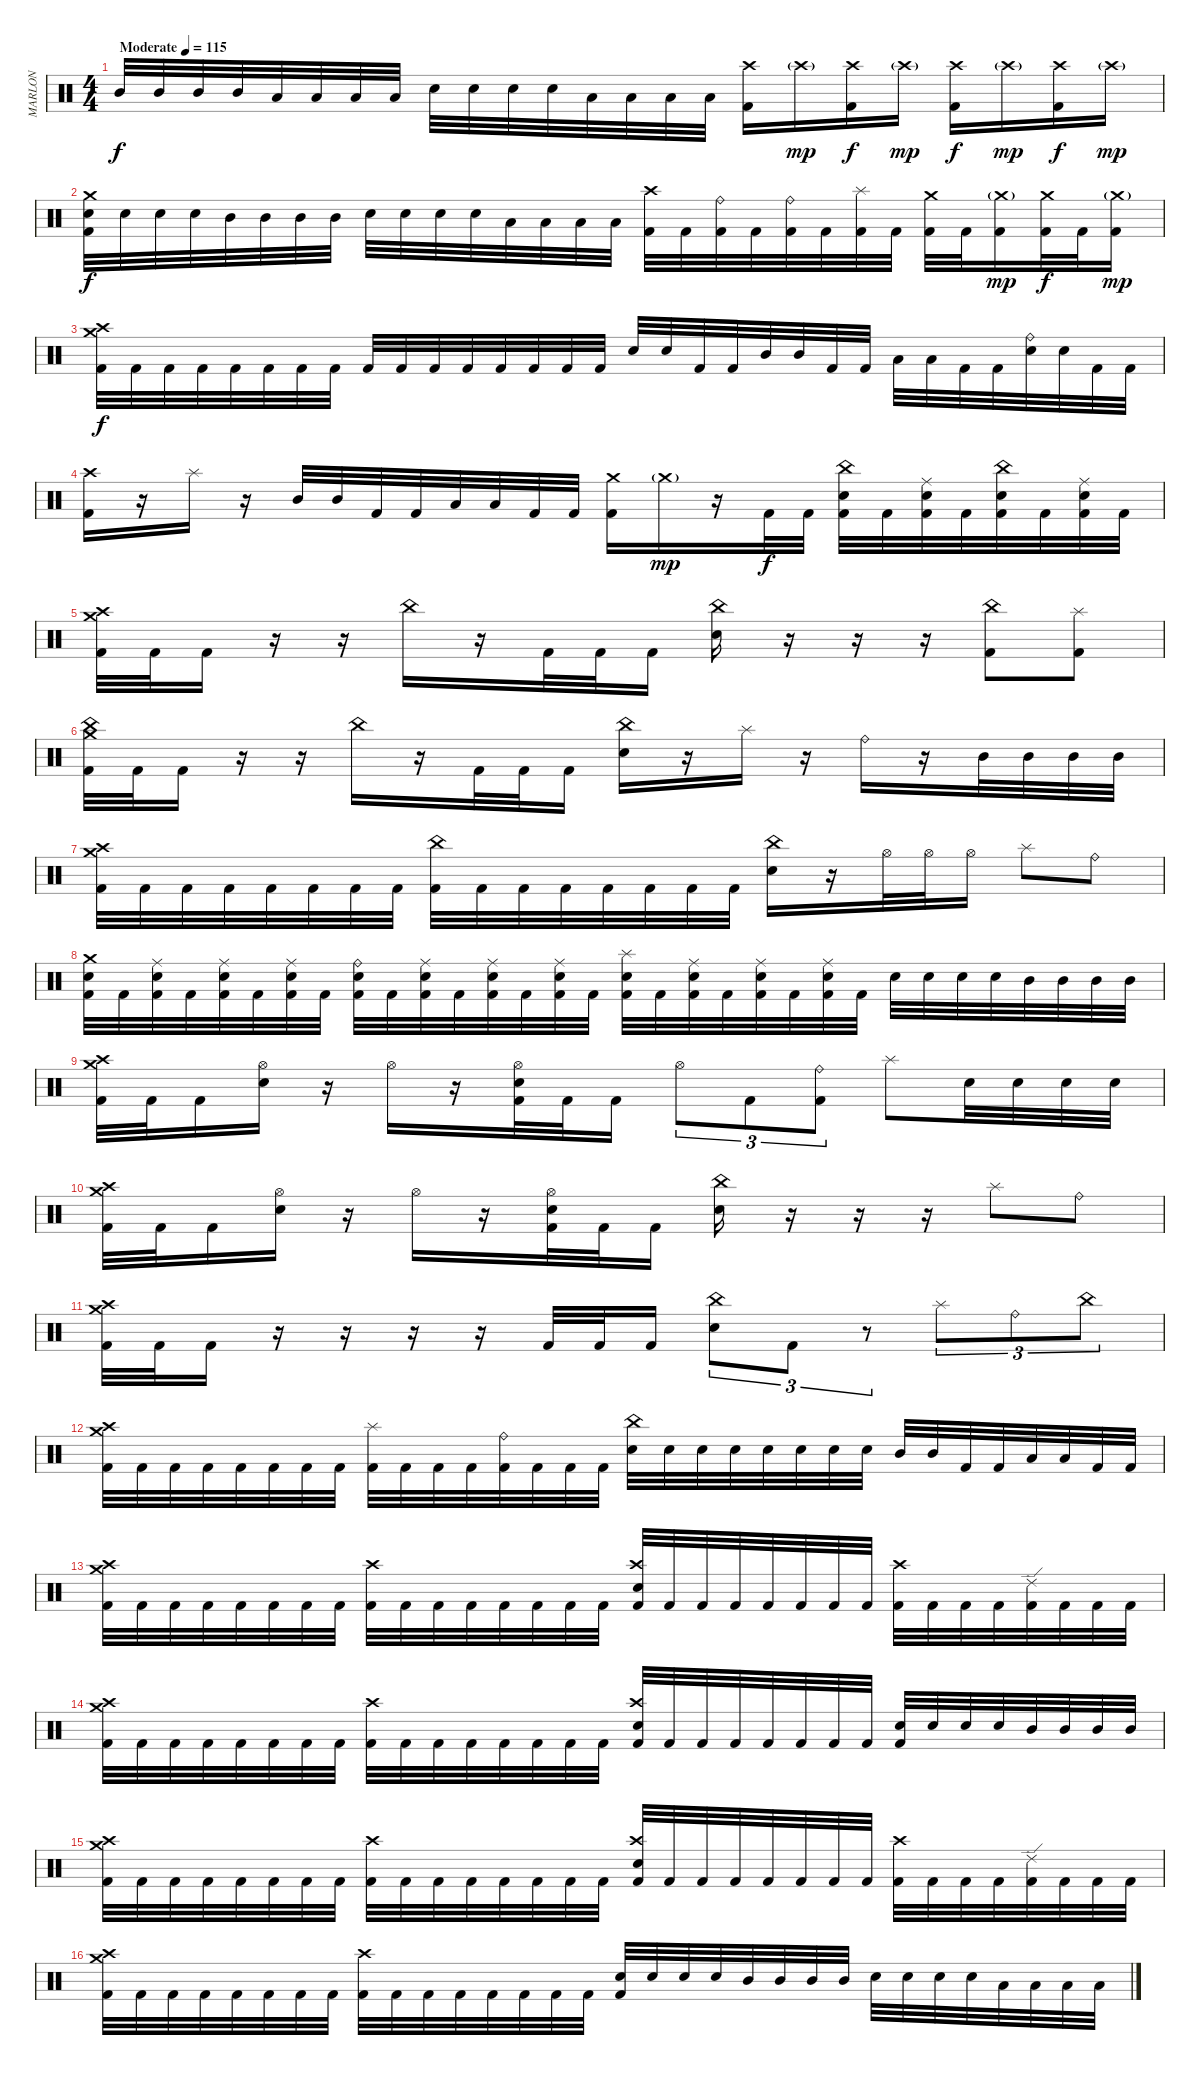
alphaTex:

\track ("MARLON" "MARLON") {instrument percussion}
\staff {score}
\articulation defaults
\ts (4 4)
\tempo (115 "Moderate")
\clef neutral
\ks c "Mid Tom (hit)".32{dy f} "Mid Tom (hit)".32 "Mid Tom (hit)".32 "Mid Tom (hit)".32 "Low Tom (hit)".32 "Low Tom (hit)".32 "Low Tom (hit)".32 "Low Tom (hit)".32 "Electric Snare (hit)".32 "Electric Snare (hit)".32 "Electric Snare (hit)".32 "Electric Snare (hit)".32 "Low Tom (hit)".32 "Low Tom (hit)".32 "Low Tom (hit)".32 "Low Tom (hit)".32
("Crash high (hit)" "Kick (hit) 2").16 "Crash high (hit)"{g}.16{dy mp} ("Crash high (hit)" "Kick (hit) 2").16{dy f} "Crash high (hit)"{g}.16{dy mp} ("Crash high (hit)" "Kick (hit) 2").16{dy f} "Crash high (hit)"{g}.16{dy mp} ("Crash high (hit)" "Kick (hit) 2").16{dy f} "Crash high (hit)"{g}.16{dy mp} |
("Crash medium (hit)" "Electric Snare (hit)" "Kick (hit) 2").32{dy f} "Electric Snare (hit)".32 "Electric Snare (hit)".32 "Electric Snare (hit)".32 "Mid Tom (hit)".32 "Mid Tom (hit)".32 "Mid Tom (hit)".32 "Mid Tom (hit)".32 "Electric Snare (hit)".32 "Electric Snare (hit)".32 "Electric Snare (hit)".32 "Electric Snare (hit)".32 "Low Tom (hit)".32 "Low Tom (hit)".32 "Low Tom (hit)".32 "Low Tom (hit)".32 ("Crash high (hit)" "Kick (hit) 2").32 "Kick (hit) 2".32 ("Ride (bell)" "Kick (hit) 2").32 "Kick (hit) 2".32 ("Ride (bell)" "Kick (hit) 2").32 "Kick (hit) 2".32 ("Splash (hit)" "Kick (hit) 2").32 "Kick (hit) 2".32 ("Crash medium (hit)" "Kick (hit) 2").32 "Kick (hit) 2".32 ("Crash medium (hit)"{g} "Kick (hit) 2").16{dy mp} ("Crash medium (hit)" "Kick (hit) 2").32{dy f} "Kick (hit) 2".32 ("Crash medium (hit)"{g} "Kick (hit) 2").16{dy mp} |
("Crash medium (hit)" "Crash high (hit)" "Kick (hit) 2").32{dy f} "Kick (hit) 2".32 "Kick (hit) 2".32 "Kick (hit) 2".32 "Kick (hit) 2".32 "Kick (hit) 2".32 "Kick (hit) 2".32 "Kick (hit) 2".32 "Kick (hit) 2".32 "Kick (hit) 2".32 "Kick (hit) 2".32 "Kick (hit) 2".32 "Kick (hit) 2".32 "Kick (hit) 2".32 "Kick (hit) 2".32 "Kick (hit) 2".32 "Electric Snare (hit)".32 "Electric Snare (hit)".32 "Kick (hit) 2".32 "Kick (hit) 2".32 "Mid Tom (hit)".32 "Mid Tom (hit)".32 "Kick (hit) 2".32 "Kick (hit) 2".32 "Low Tom (hit)".32 "Low Tom (hit)".32 "Kick (hit) 2".32 "Kick (hit) 2".32 ("Ride (bell)" "Electric Snare (hit)").32 "Electric Snare (hit)".32 "Kick (hit) 2".32 "Kick (hit) 2".32 |
("Crash high (hit)" "Kick (hit) 2").16 r.16 "Splash (hit)".16 r.16 "Mid Tom (hit)".32 "Mid Tom (hit)".32 "Kick (hit) 2".32 "Kick (hit) 2".32 "Low Tom (hit)".32 "Low Tom (hit)".32 "Kick (hit) 2".32 "Kick (hit) 2".32 ("Crash medium (hit)" "Kick (hit) 2").16 "Crash medium (hit)"{g}.16{dy mp} r.16 "Kick (hit) 2".32{dy f} "Kick (hit) 2".32 ("China (hit)" "Electric Snare (hit)" "Kick (hit) 2").32 "Kick (hit) 2".32 ("Ride (middle)" "Electric Snare (hit)" "Kick (hit) 2").32 "Kick (hit) 2".32 ("China (hit)" "Electric Snare (hit)" "Kick (hit) 2").32 "Kick (hit) 2".32 ("Ride (middle)" "Electric Snare (hit)" "Kick (hit) 2").32 "Kick (hit) 2".32 |
("Crash high (hit)" "Crash medium (hit)" "Kick (hit) 2").32 "Kick (hit) 2".32 "Kick (hit) 2".16 r.16 r.16 "China (hit)".16 r.16 "Kick (hit) 2".32 "Kick (hit) 2".32 "Kick (hit) 2".16 ("China (hit)" "Electric Snare (hit)").16 r.16 r.16 r.16 ("China (hit)" "Kick (hit) 2").8 ("Splash (hit)" "Kick (hit) 2").8 |
("China (hit)" "Crash medium (hit)" "Kick (hit) 2").32 "Kick (hit) 2".32 "Kick (hit) 2".16 r.16 r.16 "China (hit)".16 r.16 "Kick (hit) 2".32 "Kick (hit) 2".32 "Kick (hit) 2".16 ("China (hit)" "Electric Snare (hit)").16 r.16 "Splash (hit)".16 r.16 "Ride (bell)".16 r.16 "Mid Tom (hit)".32 "Mid Tom (hit)".32 "Mid Tom (hit)".32 "Mid Tom (hit)".32 |
("Crash high (hit)" "Crash medium (hit)" "Kick (hit) 2").32 "Kick (hit) 2".32 "Kick (hit) 2".32 "Kick (hit) 2".32 "Kick (hit) 2".32 "Kick (hit) 2".32 "Kick (hit) 2".32 "Kick (hit) 2".32 ("China (hit)" "Kick (hit) 2").32 "Kick (hit) 2".32 "Kick (hit) 2".32 "Kick (hit) 2".32 "Kick (hit) 2".32 "Kick (hit) 2".32 "Kick (hit) 2".32 "Kick (hit) 2".32 ("China (hit)" "Electric Snare (hit)").16 r.16 "Hi-Hat (open)".32 "Hi-Hat (open)".32 "Hi-Hat (open)".16 "Splash (hit)".8 "Ride (bell)".8 |
("Crash medium (hit)" "Electric Snare (hit)" "Kick (hit) 2").32 "Kick (hit) 2".32 ("Ride (middle)" "Electric Snare (hit)" "Kick (hit) 2").32 "Kick (hit) 2".32 ("Ride (middle)" "Electric Snare (hit)" "Kick (hit) 2").32 "Kick (hit) 2".32 ("Ride (middle)" "Electric Snare (hit)" "Kick (hit) 2").32 "Kick (hit) 2".32 ("Ride (bell)" "Electric Snare (hit)" "Kick (hit) 2").32 "Kick (hit) 2".32 ("Ride (middle)" "Electric Snare (hit)" "Kick (hit) 2").32 "Kick (hit) 2".32 ("Ride (middle)" "Electric Snare (hit)" "Kick (hit) 2").32 "Kick (hit) 2".32 ("Ride (middle)" "Electric Snare (hit)" "Kick (hit) 2").32 "Kick (hit) 2".32 ("Splash (hit)" "Electric Snare (hit)" "Kick (hit) 2").32 "Kick (hit) 2".32 ("Ride (middle)" "Electric Snare (hit)" "Kick (hit) 2").32 "Kick (hit) 2".32 ("Ride (middle)" "Electric Snare (hit)" "Kick (hit) 2").32 "Kick (hit) 2".32 ("Ride (middle)" "Electric Snare (hit)" "Kick (hit) 2").32 "Kick (hit) 2".32 "Electric Snare (hit)".32 "Electric Snare (hit)".32 "Electric Snare (hit)".32 "Electric Snare (hit)".32 "Mid Tom (hit)".32 "Mid Tom (hit)".32 "Mid Tom (hit)".32 "Mid Tom (hit)".32 |
("Crash high (hit)" "Crash medium (hit)" "Kick (hit) 2").32 "Kick (hit) 2".32 "Kick (hit) 2".16 ("Hi-Hat (open)" "Electric Snare (hit)").16 r.16 "Hi-Hat (open)".16 r.16 ("Hi-Hat (open)" "Electric Snare (hit)" "Kick (hit) 2").32 "Kick (hit) 2".32 "Kick (hit) 2".16 "Hi-Hat (open)".8{tu (3 2)} "Kick (hit) 2".8{tu (3 2)} ("Ride (bell)" "Kick (hit) 2").8{tu (3 2)} "Splash (hit)".8 "Electric Snare (hit)".32 "Electric Snare (hit)".32 "Electric Snare (hit)".32 "Electric Snare (hit)".32 |
("Crash high (hit)" "Crash medium (hit)" "Kick (hit) 2").32 "Kick (hit) 2".32 "Kick (hit) 2".16 ("Hi-Hat (open)" "Electric Snare (hit)").16 r.16 "Hi-Hat (open)".16 r.16 ("Hi-Hat (open)" "Electric Snare (hit)" "Kick (hit) 2").32 "Kick (hit) 2".32 "Kick (hit) 2".16 ("China (hit)" "Electric Snare (hit)").16 r.16 r.16 r.16 "Splash (hit)".8 "Ride (bell)".8 |
("Crash high (hit)" "Crash medium (hit)" "Kick (hit) 2").32 "Kick (hit) 2".32 "Kick (hit) 2".16 r.16 r.16 r.16 r.16 "Kick (hit) 2".32 "Kick (hit) 2".32 "Kick (hit) 2".16 ("China (hit)" "Electric Snare (hit)").8{tu (3 2)} "Kick (hit) 2".8{tu (3 2)} r.8{tu (3 2)} "Splash (hit)".8{tu (3 2)} "Ride (bell)".8{tu (3 2)} "China (hit)".8{tu (3 2)} |
("Crash high (hit)" "Crash medium (hit)" "Kick (hit) 2").32 "Kick (hit) 2".32 "Kick (hit) 2".32 "Kick (hit) 2".32 "Kick (hit) 2".32 "Kick (hit) 2".32 "Kick (hit) 2".32 "Kick (hit) 2".32 ("Splash (hit)" "Kick (hit) 2").32 "Kick (hit) 2".32 "Kick (hit) 2".32 "Kick (hit) 2".32 ("Ride (bell)" "Kick (hit) 2").32 "Kick (hit) 2".32 "Kick (hit) 2".32 "Kick (hit) 2".32 ("China (hit)" "Electric Snare (hit)").32 "Electric Snare (hit)".32 "Electric Snare (hit)".32 "Electric Snare (hit)".32 "Electric Snare (hit)".32 "Electric Snare (hit)".32 "Electric Snare (hit)".32 "Electric Snare (hit)".32 "Mid Tom (hit)".32 "Mid Tom (hit)".32 "Kick (hit) 2".32 "Kick (hit) 2".32 "Low Tom (hit)".32 "Low Tom (hit)".32 "Kick (hit) 2".32 "Kick (hit) 2".32 |
("Crash high (hit)" "Crash medium (hit)" "Kick (hit) 2").32 "Kick (hit) 2".32 "Kick (hit) 2".32 "Kick (hit) 2".32 "Kick (hit) 2".32 "Kick (hit) 2".32 "Kick (hit) 2".32 "Kick (hit) 2".32 ("Crash high (hit)" "Kick (hit) 2").32 "Kick (hit) 2".32 "Kick (hit) 2".32 "Kick (hit) 2".32 "Kick (hit) 2".32 "Kick (hit) 2".32 "Kick (hit) 2".32 "Kick (hit) 2".32 ("Crash high (hit)" "Electric Snare (hit)" "Kick (hit) 2").32 "Kick (hit) 2".32 "Kick (hit) 2".32 "Kick (hit) 2".32 "Kick (hit) 2".32 "Kick (hit) 2".32 "Kick (hit) 2".32 "Kick (hit) 2".32 ("Crash high (hit)" "Kick (hit) 2").32 "Kick (hit) 2".32 "Kick (hit) 2".32 "Kick (hit) 2".32 ("Ride (edge) 2" "Kick (hit) 2").32 "Kick (hit) 2".32 "Kick (hit) 2".32 "Kick (hit) 2".32 |
("Crash high (hit)" "Crash medium (hit)" "Kick (hit) 2").32 "Kick (hit) 2".32 "Kick (hit) 2".32 "Kick (hit) 2".32 "Kick (hit) 2".32 "Kick (hit) 2".32 "Kick (hit) 2".32 "Kick (hit) 2".32 ("Crash high (hit)" "Kick (hit) 2").32 "Kick (hit) 2".32 "Kick (hit) 2".32 "Kick (hit) 2".32 "Kick (hit) 2".32 "Kick (hit) 2".32 "Kick (hit) 2".32 "Kick (hit) 2".32 ("Crash high (hit)" "Electric Snare (hit)" "Kick (hit) 2").32 "Kick (hit) 2".32 "Kick (hit) 2".32 "Kick (hit) 2".32 "Kick (hit) 2".32 "Kick (hit) 2".32 "Kick (hit) 2".32 "Kick (hit) 2".32 ("Electric Snare (hit)" "Kick (hit) 2").32 "Electric Snare (hit)".32 "Electric Snare (hit)".32 "Electric Snare (hit)".32 "Mid Tom (hit)".32 "Mid Tom (hit)".32 "Mid Tom (hit)".32 "Mid Tom (hit)".32 |
("Crash high (hit)" "Crash medium (hit)" "Kick (hit) 2").32 "Kick (hit) 2".32 "Kick (hit) 2".32 "Kick (hit) 2".32 "Kick (hit) 2".32 "Kick (hit) 2".32 "Kick (hit) 2".32 "Kick (hit) 2".32 ("Crash high (hit)" "Kick (hit) 2").32 "Kick (hit) 2".32 "Kick (hit) 2".32 "Kick (hit) 2".32 "Kick (hit) 2".32 "Kick (hit) 2".32 "Kick (hit) 2".32 "Kick (hit) 2".32 ("Crash high (hit)" "Electric Snare (hit)" "Kick (hit) 2").32 "Kick (hit) 2".32 "Kick (hit) 2".32 "Kick (hit) 2".32 "Kick (hit) 2".32 "Kick (hit) 2".32 "Kick (hit) 2".32 "Kick (hit) 2".32 ("Crash high (hit)" "Kick (hit) 2").32 "Kick (hit) 2".32 "Kick (hit) 2".32 "Kick (hit) 2".32 ("Ride (edge) 2" "Kick (hit) 2").32 "Kick (hit) 2".32 "Kick (hit) 2".32 "Kick (hit) 2".32 |
("Crash high (hit)" "Crash medium (hit)" "Kick (hit) 2").32 "Kick (hit) 2".32 "Kick (hit) 2".32 "Kick (hit) 2".32 "Kick (hit) 2".32 "Kick (hit) 2".32 "Kick (hit) 2".32 "Kick (hit) 2".32 ("Crash high (hit)" "Kick (hit) 2").32 "Kick (hit) 2".32 "Kick (hit) 2".32 "Kick (hit) 2".32 "Kick (hit) 2".32 "Kick (hit) 2".32 "Kick (hit) 2".32 "Kick (hit) 2".32 ("Electric Snare (hit)" "Kick (hit) 2").32 "Electric Snare (hit)".32 "Electric Snare (hit)".32 "Electric Snare (hit)".32 "Mid Tom (hit)".32 "Mid Tom (hit)".32 "Mid Tom (hit)".32 "Mid Tom (hit)".32 "Electric Snare (hit)".32 "Electric Snare (hit)".32 "Electric Snare (hit)".32 "Electric Snare (hit)".32 "Low Tom (hit)".32 "Low Tom (hit)".32 "Low Tom (hit)".32 "Low Tom (hit)".32
